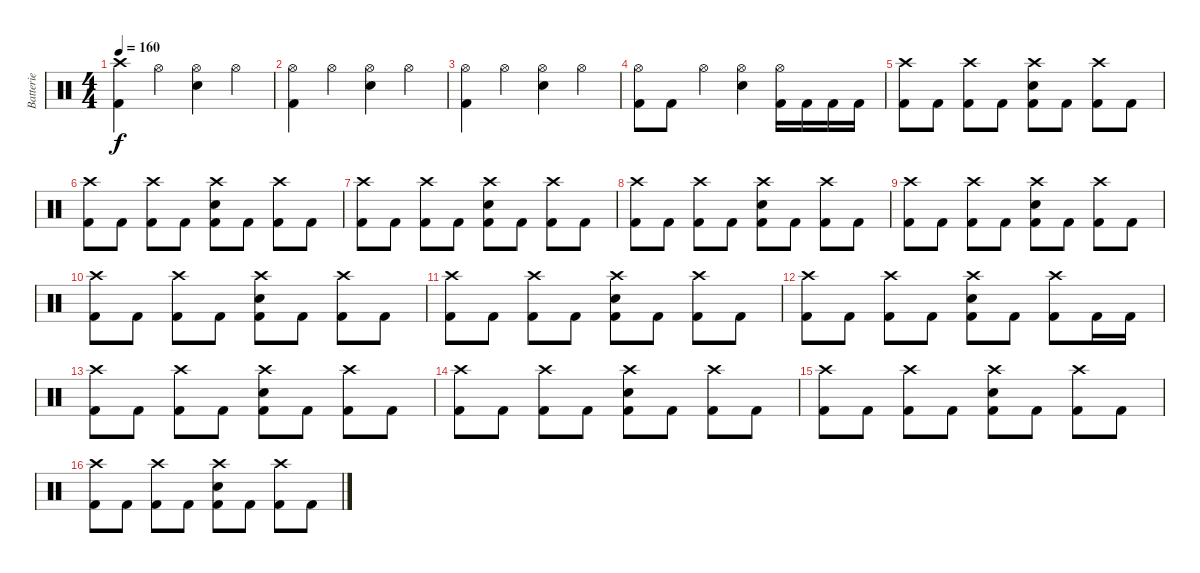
\track ("Batterie" "Batterie") {instrument percussion}
\staff {score}
\articulation defaults
\ts (4 4)
\tempo 160
\clef neutral
\ks c
("Crash high (hit)" "Kick (hit) 2").4{dy f} "Hi-Hat (open)".4 ("Hi-Hat (open)" "Electric Snare (hit)").4 "Hi-Hat (open)".4 |
("Hi-Hat (open)" "Kick (hit) 2").4 "Hi-Hat (open)".4 ("Hi-Hat (open)" "Electric Snare (hit)").4 "Hi-Hat (open)".4 |
("Hi-Hat (open)" "Kick (hit) 2").4 "Hi-Hat (open)".4 ("Hi-Hat (open)" "Electric Snare (hit)").4 "Hi-Hat (open)".4 |
("Hi-Hat (open)" "Kick (hit) 2").8 "Kick (hit) 2".8 "Hi-Hat (open)".4 ("Hi-Hat (open)" "Electric Snare (hit)").4 ("Hi-Hat (open)" "Kick (hit) 2").16 "Kick (hit) 2".16 "Kick (hit) 2".16 "Kick (hit) 2".16 |
("Crash high (hit)" "Kick (hit) 2").8 "Kick (hit) 2".8 ("Crash high (hit)" "Kick (hit) 2").8 "Kick (hit) 2".8 ("Crash high (hit)" "Electric Snare (hit)" "Kick (hit) 2").8 "Kick (hit) 2".8 ("Crash high (hit)" "Kick (hit) 2").8 "Kick (hit) 2".8 |
("Crash high (hit)" "Kick (hit) 2").8 "Kick (hit) 2".8 ("Crash high (hit)" "Kick (hit) 2").8 "Kick (hit) 2".8 ("Crash high (hit)" "Electric Snare (hit)" "Kick (hit) 2").8 "Kick (hit) 2".8 ("Crash high (hit)" "Kick (hit) 2").8 "Kick (hit) 2".8 |
("Crash high (hit)" "Kick (hit) 2").8 "Kick (hit) 2".8 ("Crash high (hit)" "Kick (hit) 2").8 "Kick (hit) 2".8 ("Crash high (hit)" "Electric Snare (hit)" "Kick (hit) 2").8 "Kick (hit) 2".8 ("Crash high (hit)" "Kick (hit) 2").8 "Kick (hit) 2".8 |
("Crash high (hit)" "Kick (hit) 2").8 "Kick (hit) 2".8 ("Crash high (hit)" "Kick (hit) 2").8 "Kick (hit) 2".8 ("Crash high (hit)" "Electric Snare (hit)" "Kick (hit) 2").8 "Kick (hit) 2".8 ("Crash high (hit)" "Kick (hit) 2").8 "Kick (hit) 2".8 |
("Crash high (hit)" "Kick (hit) 2").8 "Kick (hit) 2".8 ("Crash high (hit)" "Kick (hit) 2").8 "Kick (hit) 2".8 ("Crash high (hit)" "Electric Snare (hit)" "Kick (hit) 2").8 "Kick (hit) 2".8 ("Crash high (hit)" "Kick (hit) 2").8 "Kick (hit) 2".8 |
("Crash high (hit)" "Kick (hit) 2").8 "Kick (hit) 2".8 ("Crash high (hit)" "Kick (hit) 2").8 "Kick (hit) 2".8 ("Crash high (hit)" "Electric Snare (hit)" "Kick (hit) 2").8 "Kick (hit) 2".8 ("Crash high (hit)" "Kick (hit) 2").8 "Kick (hit) 2".8 |
("Crash high (hit)" "Kick (hit) 2").8 "Kick (hit) 2".8 ("Crash high (hit)" "Kick (hit) 2").8 "Kick (hit) 2".8 ("Crash high (hit)" "Electric Snare (hit)" "Kick (hit) 2").8 "Kick (hit) 2".8 ("Crash high (hit)" "Kick (hit) 2").8 "Kick (hit) 2".8 |
("Crash high (hit)" "Kick (hit) 2").8 "Kick (hit) 2".8 ("Crash high (hit)" "Kick (hit) 2").8 "Kick (hit) 2".8 ("Crash high (hit)" "Electric Snare (hit)" "Kick (hit) 2").8 "Kick (hit) 2".8 ("Crash high (hit)" "Kick (hit) 2").8 "Kick (hit) 2".16 "Kick (hit) 2".16 |
("Crash high (hit)" "Kick (hit) 2").8 "Kick (hit) 2".8 ("Crash high (hit)" "Kick (hit) 2").8 "Kick (hit) 2".8 ("Crash high (hit)" "Electric Snare (hit)" "Kick (hit) 2").8 "Kick (hit) 2".8 ("Crash high (hit)" "Kick (hit) 2").8 "Kick (hit) 2".8 |
("Crash high (hit)" "Kick (hit) 2").8 "Kick (hit) 2".8 ("Crash high (hit)" "Kick (hit) 2").8 "Kick (hit) 2".8 ("Crash high (hit)" "Electric Snare (hit)" "Kick (hit) 2").8 "Kick (hit) 2".8 ("Crash high (hit)" "Kick (hit) 2").8 "Kick (hit) 2".8 |
("Crash high (hit)" "Kick (hit) 2").8 "Kick (hit) 2".8 ("Crash high (hit)" "Kick (hit) 2").8 "Kick (hit) 2".8 ("Crash high (hit)" "Electric Snare (hit)" "Kick (hit) 2").8 "Kick (hit) 2".8 ("Crash high (hit)" "Kick (hit) 2").8 "Kick (hit) 2".8 |
("Crash high (hit)" "Kick (hit) 2").8 "Kick (hit) 2".8 ("Crash high (hit)" "Kick (hit) 2").8 "Kick (hit) 2".8 ("Crash high (hit)" "Electric Snare (hit)" "Kick (hit) 2").8 "Kick (hit) 2".8 ("Crash high (hit)" "Kick (hit) 2").8 "Kick (hit) 2".8
